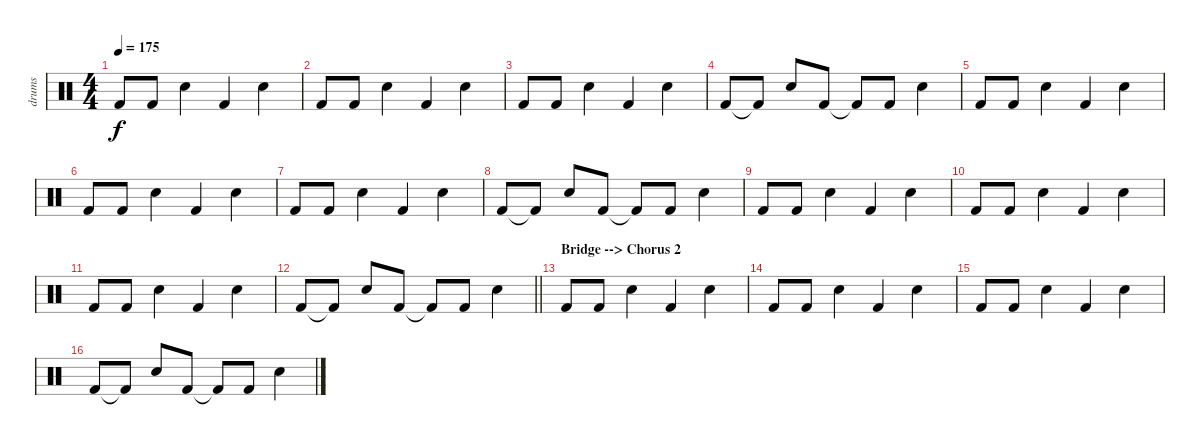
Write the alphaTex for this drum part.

\track ("drums" "drums") {instrument percussion}
\staff {score}
\articulation defaults
\ts (4 4)
\tempo 175
\clef neutral
\ks c "Kick (hit) 2".8{dy f} "Kick (hit) 2".8 "Snare (hit) 2".4 "Kick (hit) 2".4 "Snare (hit) 2".4
|
"Kick (hit) 2".8 "Kick (hit) 2".8 "Snare (hit) 2".4 "Kick (hit) 2".4 "Snare (hit) 2".4 |
"Kick (hit) 2".8 "Kick (hit) 2".8 "Snare (hit) 2".4 "Kick (hit) 2".4 "Snare (hit) 2".4 |
"Kick (hit) 2".8 "Kick (hit) 2"{t}.8 "Snare (hit) 2".8 "Kick (hit) 2".8 "Kick (hit) 2"{t}.8 "Kick (hit) 2".8 "Snare (hit) 2".4 |
"Kick (hit) 2".8 "Kick (hit) 2".8 "Snare (hit) 2".4 "Kick (hit) 2".4 "Snare (hit) 2".4 |
"Kick (hit) 2".8 "Kick (hit) 2".8 "Snare (hit) 2".4 "Kick (hit) 2".4 "Snare (hit) 2".4 |
"Kick (hit) 2".8 "Kick (hit) 2".8 "Snare (hit) 2".4 "Kick (hit) 2".4 "Snare (hit) 2".4 |
"Kick (hit) 2".8 "Kick (hit) 2"{t}.8 "Snare (hit) 2".8 "Kick (hit) 2".8 "Kick (hit) 2"{t}.8 "Kick (hit) 2".8 "Snare (hit) 2".4 |
"Kick (hit) 2".8 "Kick (hit) 2".8 "Snare (hit) 2".4 "Kick (hit) 2".4 "Snare (hit) 2".4 |
"Kick (hit) 2".8 "Kick (hit) 2".8 "Snare (hit) 2".4 "Kick (hit) 2".4 "Snare (hit) 2".4 |
"Kick (hit) 2".8 "Kick (hit) 2".8 "Snare (hit) 2".4 "Kick (hit) 2".4 "Snare (hit) 2".4 |
\barLineRight lightlight "Kick (hit) 2".8 "Kick (hit) 2"{t}.8 "Snare (hit) 2".8 "Kick (hit) 2".8 "Kick (hit) 2"{t}.8 "Kick (hit) 2".8 "Snare (hit) 2".4
|
\section ("" "Bridge --> Chorus 2")
"Kick (hit) 2".8 "Kick (hit) 2".8 "Snare (hit) 2".4 "Kick (hit) 2".4 "Snare (hit) 2".4 |
"Kick (hit) 2".8 "Kick (hit) 2".8 "Snare (hit) 2".4 "Kick (hit) 2".4 "Snare (hit) 2".4 |
"Kick (hit) 2".8 "Kick (hit) 2".8 "Snare (hit) 2".4 "Kick (hit) 2".4 "Snare (hit) 2".4 |
"Kick (hit) 2".8 "Kick (hit) 2"{t}.8 "Snare (hit) 2".8 "Kick (hit) 2".8 "Kick (hit) 2"{t}.8 "Kick (hit) 2".8 "Snare (hit) 2".4
